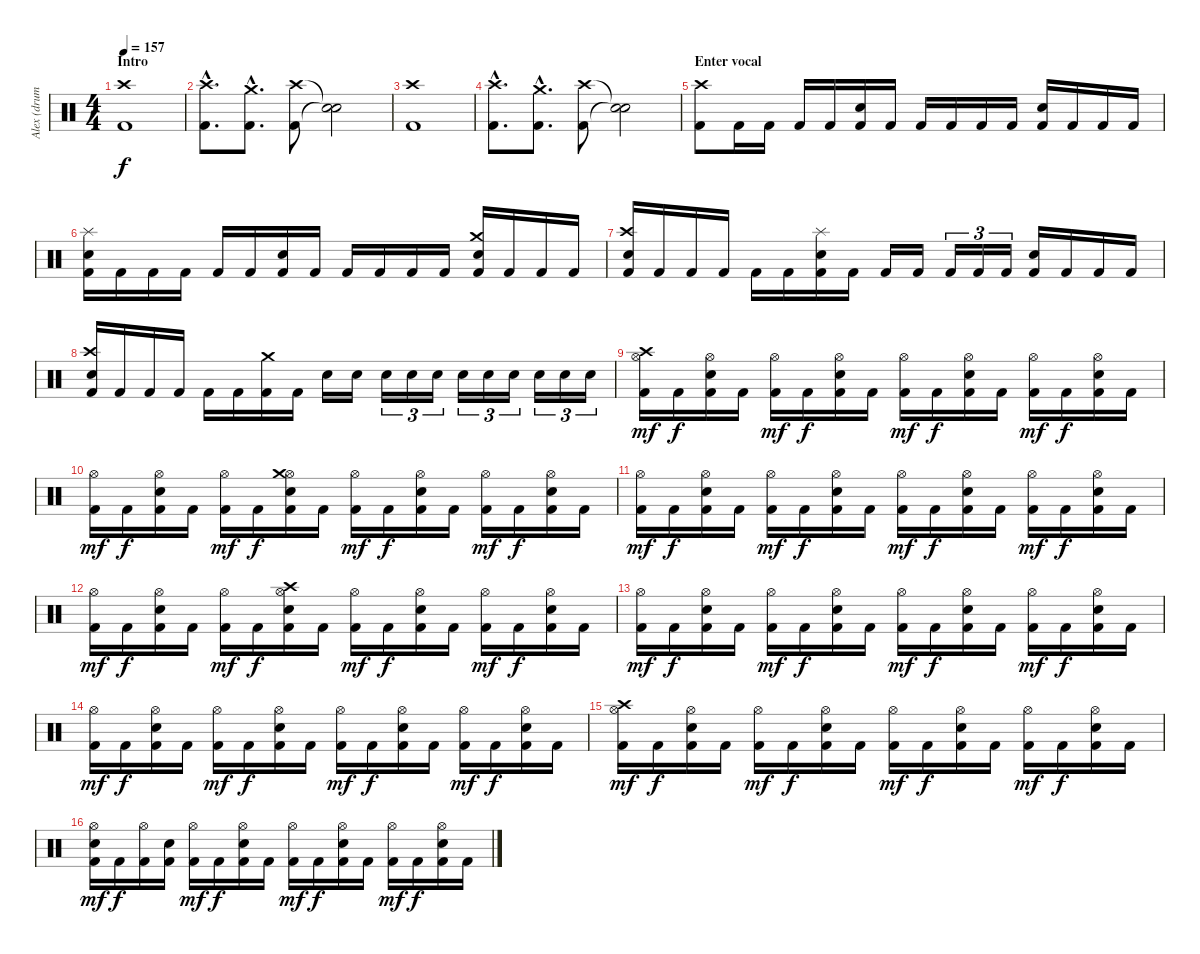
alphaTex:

\track ("Alex (drums)" "Alex (drum") {instrument percussion}
\staff {score}
\articulation defaults
\ts (4 4)
\section ("" "Intro")
\tempo 157
\clef neutral
\ks c
("Kick (hit) 2" "Crash high (hit)").1{dy f} |
("Kick (hit) 2"{hac} "Crash high (hit)"{hac}).8{d} ("Kick (hit) 2"{hac} "Crash medium (hit)"{hac}).8{d} ("Kick (hit) 2" "Crash high (hit)").8 ("Snare (hit)"{t} "Snare (hit)"{t}).2 |
("Kick (hit) 2" "Crash high (hit)").1 |
("Kick (hit) 2"{hac} "Crash high (hit)"{hac}).8{d} ("Kick (hit) 2"{hac} "Crash medium (hit)"{hac}).8{d} ("Kick (hit) 2" "Crash high (hit)").8 ("Snare (hit)"{t} "Snare (hit)"{t}).2 |
\section ("" "Enter vocal")
("Kick (hit) 2" "Crash high (hit)").8 "Kick (hit) 2".16 "Kick (hit) 2".16 "Kick (hit) 2".16 "Kick (hit) 2".16 ("Snare (hit) 2" "Kick (hit) 2").16 "Kick (hit) 2".16 "Kick (hit) 2".16 "Kick (hit) 2".16 "Kick (hit) 2".16 "Kick (hit) 2".16 ("Snare (hit) 2" "Kick (hit) 2").16 "Kick (hit) 2".16 "Kick (hit) 2".16 "Kick (hit) 2".16 |
("Snare (hit) 2" "Kick (hit) 2" "Splash (hit)").16 "Kick (hit) 2".16 "Kick (hit) 2".16 "Kick (hit) 2".16 "Kick (hit) 2".16 "Kick (hit) 2".16 ("Snare (hit) 2" "Kick (hit) 2").16 "Kick (hit) 2".16 "Kick (hit) 2".16 "Kick (hit) 2".16 "Kick (hit) 2".16 "Kick (hit) 2".16 ("Snare (hit) 2" "Kick (hit) 2" "Crash medium (hit)").16 "Kick (hit) 2".16 "Kick (hit) 2".16 "Kick (hit) 2".16 |
("Snare (hit) 2" "Kick (hit) 2" "Crash high (hit)").16 "Kick (hit) 2".16 "Kick (hit) 2".16 "Kick (hit) 2".16 "Kick (hit) 2".16 "Kick (hit) 2".16 ("Snare (hit) 2" "Kick (hit) 2" "Splash (hit)").16 "Kick (hit) 2".16 "Kick (hit) 2".16 "Kick (hit) 2".16 "Kick (hit) 2".16{tu (3 2)} "Kick (hit) 2".16{tu (3 2)} "Kick (hit) 2".16{tu (3 2)} ("Snare (hit) 2" "Kick (hit) 2").16 "Kick (hit) 2".16 "Kick (hit) 2".16 "Kick (hit) 2".16 |
("Snare (hit) 2" "Kick (hit) 2" "Crash high (hit)").16 "Kick (hit) 2".16 "Kick (hit) 2".16 "Kick (hit) 2".16 "Kick (hit) 2".16 "Kick (hit) 2".16 ("Kick (hit) 2" "Crash medium (hit)").16 "Kick (hit) 2".16 "Snare (hit) 2".16 "Snare (hit) 2".16 "Snare (hit) 2".16{tu (3 2)} "Snare (hit) 2".16{tu (3 2)} "Snare (hit) 2".16{tu (3 2)} "Snare (hit) 2".16{tu (3 2)} "Snare (hit) 2".16{tu (3 2)} "Snare (hit) 2".16{tu (3 2)} "Snare (hit) 2".16{tu (3 2)} "Snare (hit) 2".16{tu (3 2)} "Snare (hit) 2".16{tu (3 2)} |
("Hi-Hat (open)" "Kick (hit) 2" "Crash high (hit)").16{dy mf} "Kick (hit) 2".16{dy f} ("Hi-Hat (open)" "Snare (hit) 2" "Kick (hit) 2").16 "Kick (hit) 2".16 ("Hi-Hat (open)" "Kick (hit) 2").16{dy mf} "Kick (hit) 2".16{dy f} ("Hi-Hat (open)" "Snare (hit) 2" "Kick (hit) 2").16 "Kick (hit) 2".16 ("Hi-Hat (open)" "Kick (hit) 2").16{dy mf} "Kick (hit) 2".16{dy f} ("Hi-Hat (open)" "Snare (hit) 2" "Kick (hit) 2").16 "Kick (hit) 2".16 ("Hi-Hat (open)" "Kick (hit) 2").16{dy mf} "Kick (hit) 2".16{dy f} ("Hi-Hat (open)" "Snare (hit) 2" "Kick (hit) 2").16 "Kick (hit) 2".16 |
("Hi-Hat (open)" "Kick (hit) 2").16{dy mf} "Kick (hit) 2".16{dy f} ("Hi-Hat (open)" "Snare (hit) 2" "Kick (hit) 2").16 "Kick (hit) 2".16 ("Hi-Hat (open)" "Kick (hit) 2").16{dy mf} "Kick (hit) 2".16{dy f} ("Hi-Hat (open)" "Snare (hit) 2" "Kick (hit) 2" "Crash medium (hit)").16 "Kick (hit) 2".16 ("Hi-Hat (open)" "Kick (hit) 2").16{dy mf} "Kick (hit) 2".16{dy f} ("Hi-Hat (open)" "Snare (hit) 2" "Kick (hit) 2").16 "Kick (hit) 2".16 ("Hi-Hat (open)" "Kick (hit) 2").16{dy mf} "Kick (hit) 2".16{dy f} ("Hi-Hat (open)" "Snare (hit) 2" "Kick (hit) 2").16 "Kick (hit) 2".16 |
("Hi-Hat (open)" "Kick (hit) 2").16{dy mf} "Kick (hit) 2".16{dy f} ("Hi-Hat (open)" "Snare (hit) 2" "Kick (hit) 2").16 "Kick (hit) 2".16 ("Hi-Hat (open)" "Kick (hit) 2").16{dy mf} "Kick (hit) 2".16{dy f} ("Hi-Hat (open)" "Snare (hit) 2" "Kick (hit) 2").16 "Kick (hit) 2".16 ("Hi-Hat (open)" "Kick (hit) 2").16{dy mf} "Kick (hit) 2".16{dy f} ("Hi-Hat (open)" "Snare (hit) 2" "Kick (hit) 2").16 "Kick (hit) 2".16 ("Hi-Hat (open)" "Kick (hit) 2").16{dy mf} "Kick (hit) 2".16{dy f} ("Hi-Hat (open)" "Snare (hit) 2" "Kick (hit) 2").16 "Kick (hit) 2".16 |
("Hi-Hat (open)" "Kick (hit) 2").16{dy mf} "Kick (hit) 2".16{dy f} ("Hi-Hat (open)" "Snare (hit) 2" "Kick (hit) 2").16 "Kick (hit) 2".16 ("Hi-Hat (open)" "Kick (hit) 2").16{dy mf} "Kick (hit) 2".16{dy f} ("Hi-Hat (open)" "Snare (hit) 2" "Kick (hit) 2" "Crash high (hit)").16 "Kick (hit) 2".16 ("Hi-Hat (open)" "Kick (hit) 2").16{dy mf} "Kick (hit) 2".16{dy f} ("Hi-Hat (open)" "Snare (hit) 2" "Kick (hit) 2").16 "Kick (hit) 2".16 ("Hi-Hat (open)" "Kick (hit) 2").16{dy mf} "Kick (hit) 2".16{dy f} ("Hi-Hat (open)" "Snare (hit) 2" "Kick (hit) 2").16 "Kick (hit) 2".16 |
("Hi-Hat (open)" "Kick (hit) 2").16{dy mf} "Kick (hit) 2".16{dy f} ("Hi-Hat (open)" "Snare (hit) 2" "Kick (hit) 2").16 "Kick (hit) 2".16 ("Hi-Hat (open)" "Kick (hit) 2").16{dy mf} "Kick (hit) 2".16{dy f} ("Hi-Hat (open)" "Snare (hit) 2" "Kick (hit) 2").16 "Kick (hit) 2".16 ("Hi-Hat (open)" "Kick (hit) 2").16{dy mf} "Kick (hit) 2".16{dy f} ("Hi-Hat (open)" "Snare (hit) 2" "Kick (hit) 2").16 "Kick (hit) 2".16 ("Hi-Hat (open)" "Kick (hit) 2").16{dy mf} "Kick (hit) 2".16{dy f} ("Hi-Hat (open)" "Snare (hit) 2" "Kick (hit) 2").16 "Kick (hit) 2".16 |
("Hi-Hat (open)" "Kick (hit) 2").16{dy mf} "Kick (hit) 2".16{dy f} ("Hi-Hat (open)" "Snare (hit) 2" "Kick (hit) 2").16 "Kick (hit) 2".16 ("Hi-Hat (open)" "Kick (hit) 2").16{dy mf} "Kick (hit) 2".16{dy f} ("Hi-Hat (open)" "Snare (hit) 2" "Kick (hit) 2").16 "Kick (hit) 2".16 ("Hi-Hat (open)" "Kick (hit) 2").16{dy mf} "Kick (hit) 2".16{dy f} ("Hi-Hat (open)" "Snare (hit) 2" "Kick (hit) 2").16 "Kick (hit) 2".16 ("Hi-Hat (open)" "Kick (hit) 2").16{dy mf} "Kick (hit) 2".16{dy f} ("Hi-Hat (open)" "Snare (hit) 2" "Kick (hit) 2").16 "Kick (hit) 2".16 |
("Hi-Hat (open)" "Kick (hit) 2" "Crash high (hit)").16{dy mf} "Kick (hit) 2".16{dy f} ("Hi-Hat (open)" "Snare (hit) 2" "Kick (hit) 2").16 "Kick (hit) 2".16 ("Hi-Hat (open)" "Kick (hit) 2").16{dy mf} "Kick (hit) 2".16{dy f} ("Hi-Hat (open)" "Snare (hit) 2" "Kick (hit) 2").16 "Kick (hit) 2".16 ("Hi-Hat (open)" "Kick (hit) 2").16{dy mf} "Kick (hit) 2".16{dy f} ("Hi-Hat (open)" "Snare (hit) 2" "Kick (hit) 2").16 "Kick (hit) 2".16 ("Hi-Hat (open)" "Kick (hit) 2").16{dy mf} "Kick (hit) 2".16{dy f} ("Hi-Hat (open)" "Snare (hit) 2" "Kick (hit) 2").16 "Kick (hit) 2".16 |
("Hi-Hat (open)" "Snare (hit) 2" "Kick (hit) 2").16{dy mf} "Kick (hit) 2".16{dy f} ("Hi-Hat (open)" "Kick (hit) 2").16 ("Snare (hit) 2" "Kick (hit) 2").16 ("Hi-Hat (open)" "Kick (hit) 2").16{dy mf} "Kick (hit) 2".16{dy f} ("Hi-Hat (open)" "Snare (hit) 2" "Kick (hit) 2").16 "Kick (hit) 2".16 ("Hi-Hat (open)" "Kick (hit) 2").16{dy mf} "Kick (hit) 2".16{dy f} ("Hi-Hat (open)" "Snare (hit) 2" "Kick (hit) 2").16 "Kick (hit) 2".16 ("Hi-Hat (open)" "Kick (hit) 2").16{dy mf} "Kick (hit) 2".16{dy f} ("Hi-Hat (open)" "Snare (hit) 2" "Kick (hit) 2").16 "Kick (hit) 2".16
